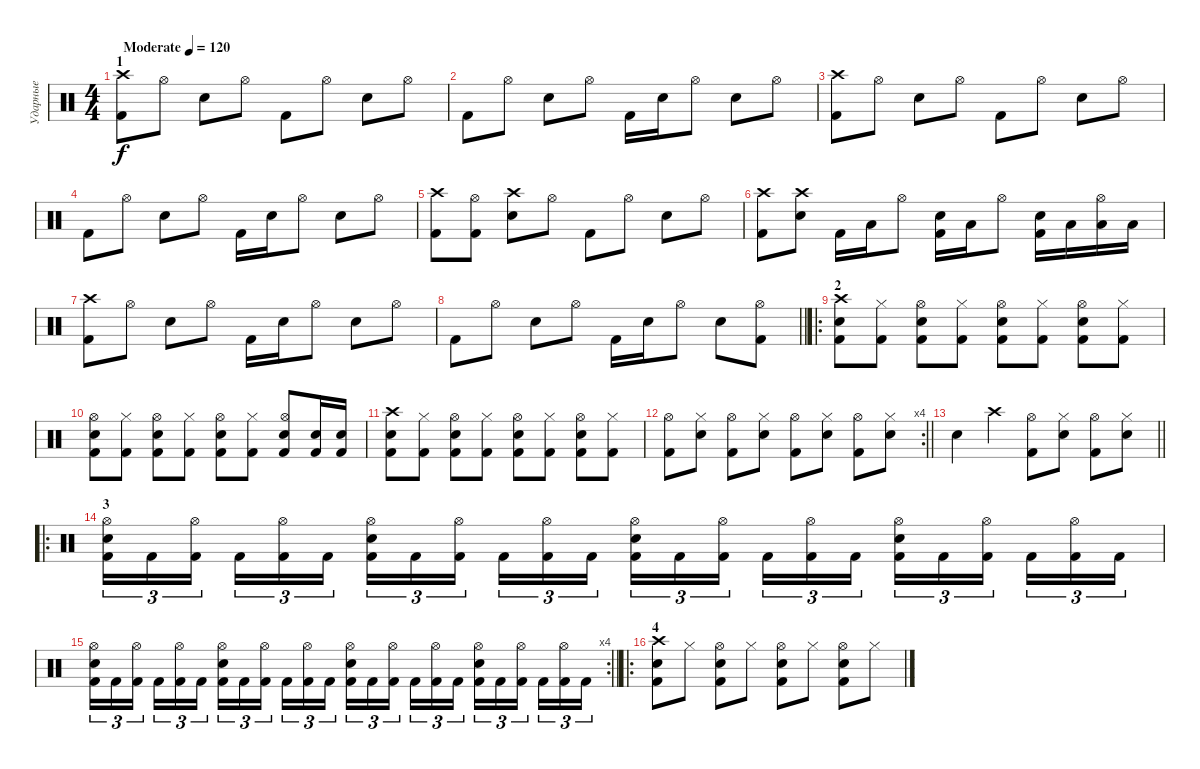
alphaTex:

\track ("Ударные" "Ударные") {instrument percussion}
\staff {score}
\articulation defaults
\ts (4 4)
\section ("" "1")
\tempo (120 "Moderate")
\tempo 160
\tempo (120 "Moderate")
\clef neutral
\ks c
("Crash high (hit)" "Kick (hit) 2").8{dy f} "Hi-Hat (open)".8 "Snare (hit) 2".8 "Hi-Hat (open)".8 "Kick (hit) 2".8 "Hi-Hat (open)".8 "Snare (hit) 2".8 "Hi-Hat (open)".8 |
"Kick (hit) 2".8 "Hi-Hat (open)".8 "Snare (hit) 2".8 "Hi-Hat (open)".8 "Kick (hit) 2".16 "Snare (hit) 2".16 "Hi-Hat (open)".8 "Snare (hit) 2".8 "Hi-Hat (open)".8 |
("Crash high (hit)" "Kick (hit) 2").8 "Hi-Hat (open)".8 "Snare (hit) 2".8 "Hi-Hat (open)".8 "Kick (hit) 2".8 "Hi-Hat (open)".8 "Snare (hit) 2".8 "Hi-Hat (open)".8 |
"Kick (hit) 2".8 "Hi-Hat (open)".8 "Snare (hit) 2".8 "Hi-Hat (open)".8 "Kick (hit) 2".16 "Snare (hit) 2".16 "Hi-Hat (open)".8 "Snare (hit) 2".8 "Hi-Hat (open)".8 |
("Crash high (hit)" "Kick (hit) 2").8 ("Hi-Hat (open)" "Kick (hit) 2").8 ("Crash high (hit)" "Snare (hit) 2").8 "Hi-Hat (open)".8 "Kick (hit) 2".8 "Hi-Hat (open)".8 "Snare (hit) 2".8 "Hi-Hat (open)".8 |
("Crash high (hit)" "Kick (hit) 2").8 ("Crash high (hit)" "Snare (hit) 2").8 "Kick (hit) 2".16 "Low Tom (hit)".16 "Hi-Hat (open)".8 ("Snare (hit) 2" "Kick (hit) 2").16 "Low Tom (hit)".16 "Hi-Hat (open)".8 ("Snare (hit) 2" "Kick (hit) 2").16 "Low Tom (hit)".16 ("Hi-Hat (open)" "Low Tom (hit)").16 "Low Tom (hit)".16 |
("Crash high (hit)" "Kick (hit) 2").8 "Hi-Hat (open)".8 "Snare (hit) 2".8 "Hi-Hat (open)".8 "Kick (hit) 2".16 "Snare (hit) 2".16 "Hi-Hat (open)".8 "Snare (hit) 2".8 "Hi-Hat (open)".8 |
\barLineRight lightlight "Kick (hit) 2".8 "Hi-Hat (open)".8 "Snare (hit) 2".8 "Hi-Hat (open)".8 "Kick (hit) 2".16 "Snare (hit) 2".16 "Hi-Hat (open)".8 "Snare (hit) 2".8
("Hi-Hat (open)" "Kick (hit) 2").8 |
\ro
\section ("" "2")
("Crash high (hit)" "Snare (hit) 2" "Kick (hit) 2").8 ("Hi-Hat (closed)" "Kick (hit) 2").8 ("Hi-Hat (open)" "Snare (hit) 2" "Kick (hit) 2").8 ("Hi-Hat (closed)" "Kick (hit) 2").8 ("Hi-Hat (open)" "Snare (hit) 2" "Kick (hit) 2").8 ("Hi-Hat (closed)" "Kick (hit) 2").8 ("Hi-Hat (open)" "Snare (hit) 2" "Kick (hit) 2").8 ("Hi-Hat (closed)" "Kick (hit) 2").8 |
("Hi-Hat (open)" "Snare (hit) 2" "Kick (hit) 2").8 ("Hi-Hat (closed)" "Kick (hit) 2").8 ("Hi-Hat (open)" "Snare (hit) 2" "Kick (hit) 2").8 ("Hi-Hat (closed)" "Kick (hit) 2").8 ("Hi-Hat (open)" "Snare (hit) 2" "Kick (hit) 2").8 ("Hi-Hat (closed)" "Kick (hit) 2").8 ("Hi-Hat (open)" "Snare (hit) 2" "Kick (hit) 2").8 ("Snare (hit) 2" "Kick (hit) 2").16 ("Snare (hit) 2" "Kick (hit) 2").16 |
("Crash high (hit)" "Snare (hit) 2" "Kick (hit) 2").8 ("Hi-Hat (closed)" "Kick (hit) 2").8 ("Hi-Hat (open)" "Snare (hit) 2" "Kick (hit) 2").8 ("Hi-Hat (closed)" "Kick (hit) 2").8 ("Hi-Hat (open)" "Snare (hit) 2" "Kick (hit) 2").8 ("Hi-Hat (closed)" "Kick (hit) 2").8 ("Hi-Hat (open)" "Snare (hit) 2" "Kick (hit) 2").8 ("Hi-Hat (closed)" "Kick (hit) 2").8 |
\rc 4
\barLineRight lightlight
("Hi-Hat (open)" "Kick (hit) 2").8 ("Hi-Hat (closed)" "Snare (hit) 2").8 ("Hi-Hat (open)" "Kick (hit) 2").8 ("Hi-Hat (closed)" "Snare (hit) 2").8 ("Hi-Hat (open)" "Kick (hit) 2").8 ("Hi-Hat (closed)" "Snare (hit) 2").8 ("Hi-Hat (open)" "Kick (hit) 2").8 ("Hi-Hat (closed)" "Snare (hit) 2").8 |
\section ("" "")
\barLineRight lightlight "Snare (hit) 2".4 "Crash high (hit)".4
("Hi-Hat (open)" "Kick (hit) 2").8 ("Hi-Hat (closed)" "Snare (hit) 2").8 ("Hi-Hat (open)" "Kick (hit) 2").8 ("Hi-Hat (closed)" "Snare (hit) 2").8 |
\ro
\section ("" "3")
("Hi-Hat (open)" "Electric Snare (hit)" "Kick (hit) 2").16{tu (3 2)} "Kick (hit) 2".16{tu (3 2)} ("Hi-Hat (open)" "Kick (hit) 2").16{tu (3 2) beam splitsecondary} "Kick (hit) 2".16{tu (3 2)} ("Hi-Hat (open)" "Kick (hit) 2").16{tu (3 2)} "Kick (hit) 2".16{tu (3 2)} ("Hi-Hat (open)" "Electric Snare (hit)" "Kick (hit) 2").16{tu (3 2)} "Kick (hit) 2".16{tu (3 2)} ("Hi-Hat (open)" "Kick (hit) 2").16{tu (3 2) beam splitsecondary} "Kick (hit) 2".16{tu (3 2)} ("Hi-Hat (open)" "Kick (hit) 2").16{tu (3 2)} "Kick (hit) 2".16{tu (3 2)} ("Hi-Hat (open)" "Electric Snare (hit)" "Kick (hit) 2").16{tu (3 2)} "Kick (hit) 2".16{tu (3 2)} ("Hi-Hat (open)" "Kick (hit) 2").16{tu (3 2) beam splitsecondary} "Kick (hit) 2".16{tu (3 2)} ("Hi-Hat (open)" "Kick (hit) 2").16{tu (3 2)} "Kick (hit) 2".16{tu (3 2)} ("Hi-Hat (open)" "Electric Snare (hit)" "Kick (hit) 2").16{tu (3 2)} "Kick (hit) 2".16{tu (3 2)} ("Hi-Hat (open)" "Kick (hit) 2").16{tu (3 2) beam splitsecondary} "Kick (hit) 2".16{tu (3 2)} ("Hi-Hat (open)" "Kick (hit) 2").16{tu (3 2)} "Kick (hit) 2".16{tu (3 2)} |
\rc 4
\barLineRight lightlight
("Hi-Hat (open)" "Electric Snare (hit)" "Kick (hit) 2").16{tu (3 2)} "Kick (hit) 2".16{tu (3 2)} ("Hi-Hat (open)" "Kick (hit) 2").16{tu (3 2) beam splitsecondary} "Kick (hit) 2".16{tu (3 2)} ("Hi-Hat (open)" "Kick (hit) 2").16{tu (3 2)} "Kick (hit) 2".16{tu (3 2)} ("Hi-Hat (open)" "Electric Snare (hit)" "Kick (hit) 2").16{tu (3 2)} "Kick (hit) 2".16{tu (3 2)} ("Hi-Hat (open)" "Kick (hit) 2").16{tu (3 2) beam splitsecondary} "Kick (hit) 2".16{tu (3 2)} ("Hi-Hat (open)" "Kick (hit) 2").16{tu (3 2)} "Kick (hit) 2".16{tu (3 2)} ("Hi-Hat (open)" "Electric Snare (hit)" "Kick (hit) 2").16{tu (3 2)} "Kick (hit) 2".16{tu (3 2)} ("Hi-Hat (open)" "Kick (hit) 2").16{tu (3 2) beam splitsecondary} "Kick (hit) 2".16{tu (3 2)} ("Hi-Hat (open)" "Kick (hit) 2").16{tu (3 2)} "Kick (hit) 2".16{tu (3 2)} ("Hi-Hat (open)" "Electric Snare (hit)" "Kick (hit) 2").16{tu (3 2)} "Kick (hit) 2".16{tu (3 2)} ("Hi-Hat (open)" "Kick (hit) 2").16{tu (3 2) beam splitsecondary} "Kick (hit) 2".16{tu (3 2)} ("Hi-Hat (open)" "Kick (hit) 2").16{tu (3 2)} "Kick (hit) 2".16{tu (3 2)} |
\ro
\section ("" "4")
("Crash high (hit)" "Snare (hit) 2" "Kick (hit) 2").8 "Hi-Hat (closed)".8 ("Hi-Hat (open)" "Snare (hit) 2" "Kick (hit) 2").8 "Hi-Hat (closed)".8 ("Hi-Hat (open)" "Snare (hit) 2" "Kick (hit) 2").8 "Hi-Hat (closed)".8 ("Hi-Hat (open)" "Snare (hit) 2" "Kick (hit) 2").8 "Hi-Hat (closed)".8
